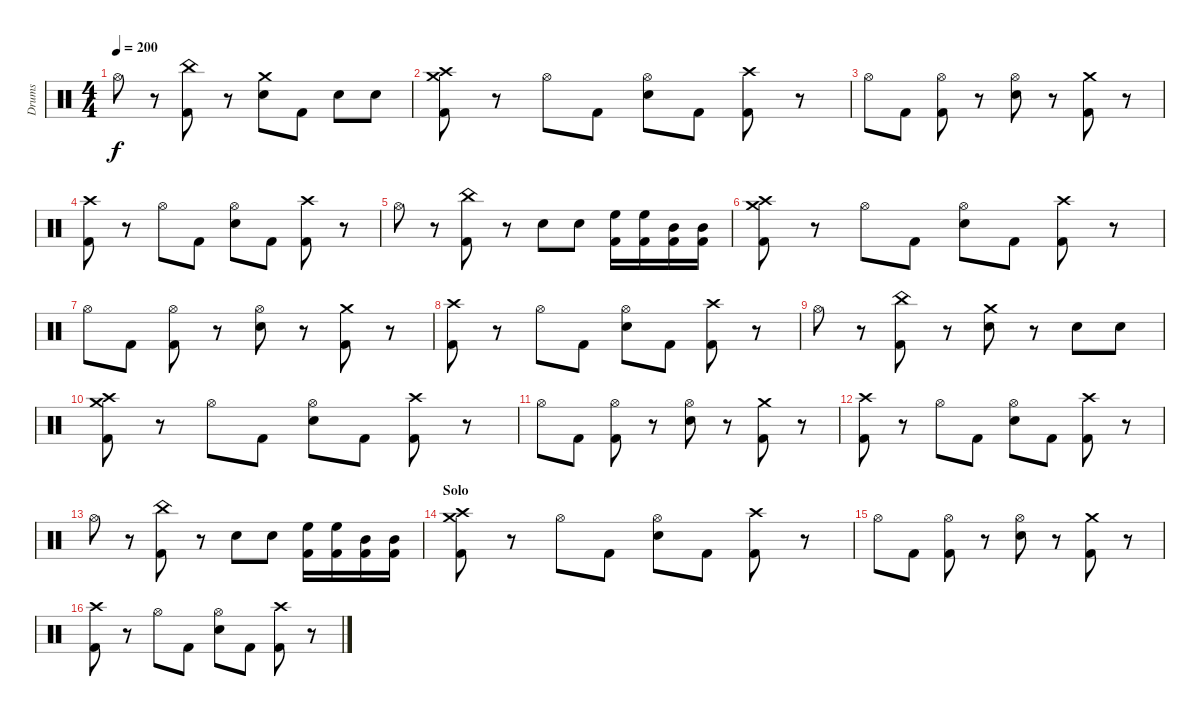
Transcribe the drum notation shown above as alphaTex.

\track ("Drums" "Drums") {instrument percussion}
\staff {score}
\articulation defaults
\ts (4 4)
\tempo 200
\clef neutral
\ks c "Hi-Hat (open)".8{dy f}
r.8 ("China (hit)" "Kick (hit) 2").8 r.8 ("Crash medium (hit)" "Electric Snare (hit)").8 "Kick (hit) 2".8 "Electric Snare (hit)".8 "Electric Snare (hit)".8 |
("Crash medium (hit)" "Crash high (hit)" "Kick (hit) 2").8 r.8 "Hi-Hat (open)".8 "Kick (hit) 2".8 ("Hi-Hat (open)" "Electric Snare (hit)").8 "Kick (hit) 2".8 ("Crash high (hit)" "Kick (hit) 2").8 r.8 |
"Hi-Hat (open)".8 "Kick (hit) 2".8 ("Hi-Hat (open)" "Kick (hit) 2").8 r.8 ("Hi-Hat (open)" "Electric Snare (hit)").8 r.8 ("Crash medium (hit)" "Kick (hit) 2").8 r.8 |
("Crash high (hit)" "Kick (hit) 2").8 r.8 "Hi-Hat (open)".8 "Kick (hit) 2".8 ("Hi-Hat (open)" "Electric Snare (hit)").8 "Kick (hit) 2".8 ("Crash high (hit)" "Kick (hit) 2").8 r.8 |
"Hi-Hat (open)".8 r.8 ("China (hit)" "Kick (hit) 2").8 r.8 "Electric Snare (hit)".8 "Electric Snare (hit)".8 ("High Floor Tom (hit)" "Kick (hit) 2").16 ("High Floor Tom (hit)" "Kick (hit) 2").16 ("Mid Tom (hit)" "Kick (hit) 2").16 ("Mid Tom (hit)" "Kick (hit) 2").16 |
\section ("" "")
("Crash medium (hit)" "Crash high (hit)" "Kick (hit) 2").8 r.8 "Hi-Hat (open)".8 "Kick (hit) 2".8 ("Hi-Hat (open)" "Electric Snare (hit)").8 "Kick (hit) 2".8 ("Crash high (hit)" "Kick (hit) 2").8 r.8 |
"Hi-Hat (open)".8 "Kick (hit) 2".8 ("Hi-Hat (open)" "Kick (hit) 2").8 r.8 ("Hi-Hat (open)" "Electric Snare (hit)").8 r.8 ("Crash medium (hit)" "Kick (hit) 2").8 r.8 |
("Crash high (hit)" "Kick (hit) 2").8 r.8 "Hi-Hat (open)".8 "Kick (hit) 2".8 ("Hi-Hat (open)" "Electric Snare (hit)").8 "Kick (hit) 2".8 ("Crash high (hit)" "Kick (hit) 2").8 r.8 |
"Hi-Hat (open)".8 r.8 ("China (hit)" "Kick (hit) 2").8 r.8 ("Crash medium (hit)" "Electric Snare (hit)").8 r.8 "Electric Snare (hit)".8 "Electric Snare (hit)".8 |
("Crash medium (hit)" "Crash high (hit)" "Kick (hit) 2").8 r.8 "Hi-Hat (open)".8 "Kick (hit) 2".8 ("Hi-Hat (open)" "Electric Snare (hit)").8 "Kick (hit) 2".8 ("Crash high (hit)" "Kick (hit) 2").8 r.8 |
"Hi-Hat (open)".8 "Kick (hit) 2".8 ("Hi-Hat (open)" "Kick (hit) 2").8 r.8 ("Hi-Hat (open)" "Electric Snare (hit)").8 r.8 ("Crash medium (hit)" "Kick (hit) 2").8 r.8 |
("Crash high (hit)" "Kick (hit) 2").8 r.8 "Hi-Hat (open)".8 "Kick (hit) 2".8 ("Hi-Hat (open)" "Electric Snare (hit)").8 "Kick (hit) 2".8 ("Crash high (hit)" "Kick (hit) 2").8 r.8 |
"Hi-Hat (open)".8 r.8 ("China (hit)" "Kick (hit) 2").8 r.8 "Electric Snare (hit)".8 "Electric Snare (hit)".8 ("High Floor Tom (hit)" "Kick (hit) 2").16 ("High Floor Tom (hit)" "Kick (hit) 2").16 ("Mid Tom (hit)" "Kick (hit) 2").16 ("Mid Tom (hit)" "Kick (hit) 2").16 |
\section ("" "Solo")
("Crash medium (hit)" "Crash high (hit)" "Kick (hit) 2").8 r.8 "Hi-Hat (open)".8 "Kick (hit) 2".8 ("Hi-Hat (open)" "Electric Snare (hit)").8 "Kick (hit) 2".8 ("Crash high (hit)" "Kick (hit) 2").8 r.8 |
"Hi-Hat (open)".8 "Kick (hit) 2".8 ("Hi-Hat (open)" "Kick (hit) 2").8 r.8 ("Hi-Hat (open)" "Electric Snare (hit)").8 r.8 ("Crash medium (hit)" "Kick (hit) 2").8 r.8 |
("Crash high (hit)" "Kick (hit) 2").8 r.8 "Hi-Hat (open)".8 "Kick (hit) 2".8 ("Hi-Hat (open)" "Electric Snare (hit)").8 "Kick (hit) 2".8 ("Crash high (hit)" "Kick (hit) 2").8 r.8
